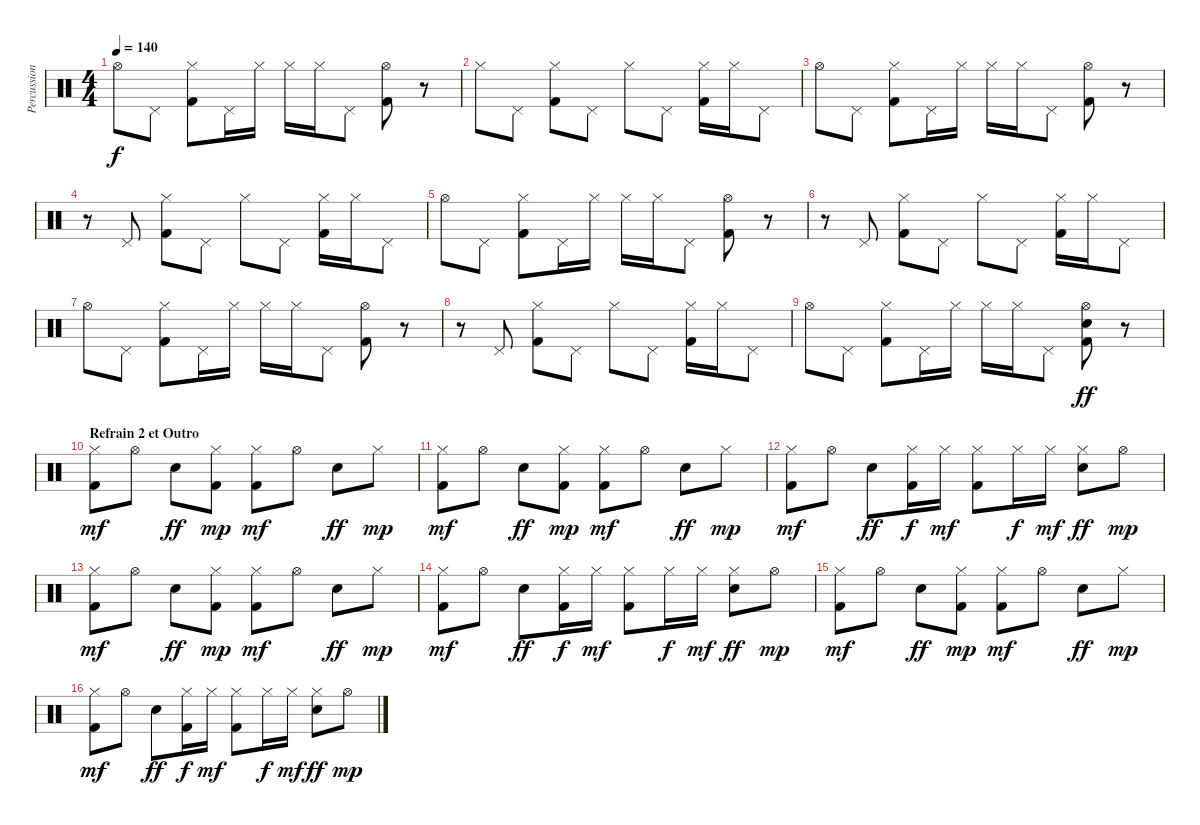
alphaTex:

\track ("Percussions" "Percussion") {instrument percussion}
\staff {score}
\articulation defaults
\ts (4 4)
\tempo 140
\clef neutral
\ks c "Hi-Hat (open)".8{dy f} "Pedal Hi-Hat (hit)".8
("Hi-Hat (closed)" "Kick (hit) 2").8 "Pedal Hi-Hat (hit)".16 "Hi-Hat (closed)".16 "Hi-Hat (closed)".16 "Hi-Hat (closed)".16 "Pedal Hi-Hat (hit)".8 ("Hi-Hat (open)" "Kick (hit) 2").8 r.8 |
"Hi-Hat (closed)".8 "Pedal Hi-Hat (hit)".8 ("Hi-Hat (closed)" "Kick (hit) 2").8 "Pedal Hi-Hat (hit)".8 "Hi-Hat (closed)".8 "Pedal Hi-Hat (hit)".8 ("Hi-Hat (closed)" "Kick (hit) 2").16 "Hi-Hat (closed)".16 "Pedal Hi-Hat (hit)".8 |
"Hi-Hat (open)".8 "Pedal Hi-Hat (hit)".8 ("Hi-Hat (closed)" "Kick (hit) 2").8 "Pedal Hi-Hat (hit)".16 "Hi-Hat (closed)".16 "Hi-Hat (closed)".16 "Hi-Hat (closed)".16 "Pedal Hi-Hat (hit)".8 ("Hi-Hat (open)" "Kick (hit) 2").8 r.8 |
r.8 "Pedal Hi-Hat (hit)".8 ("Hi-Hat (closed)" "Kick (hit) 2").8 "Pedal Hi-Hat (hit)".8 "Hi-Hat (closed)".8 "Pedal Hi-Hat (hit)".8 ("Hi-Hat (closed)" "Kick (hit) 2").16 "Hi-Hat (closed)".16 "Pedal Hi-Hat (hit)".8 |
"Hi-Hat (open)".8 "Pedal Hi-Hat (hit)".8 ("Hi-Hat (closed)" "Kick (hit) 2").8 "Pedal Hi-Hat (hit)".16 "Hi-Hat (closed)".16 "Hi-Hat (closed)".16 "Hi-Hat (closed)".16 "Pedal Hi-Hat (hit)".8 ("Hi-Hat (open)" "Kick (hit) 2").8 r.8 |
r.8 "Pedal Hi-Hat (hit)".8 ("Hi-Hat (closed)" "Kick (hit) 2").8 "Pedal Hi-Hat (hit)".8 "Hi-Hat (closed)".8 "Pedal Hi-Hat (hit)".8 ("Hi-Hat (closed)" "Kick (hit) 2").16 "Hi-Hat (closed)".16 "Pedal Hi-Hat (hit)".8 |
"Hi-Hat (open)".8 "Pedal Hi-Hat (hit)".8 ("Hi-Hat (closed)" "Kick (hit) 2").8 "Pedal Hi-Hat (hit)".16 "Hi-Hat (closed)".16 "Hi-Hat (closed)".16 "Hi-Hat (closed)".16 "Pedal Hi-Hat (hit)".8 ("Hi-Hat (open)" "Kick (hit) 2").8 r.8 |
r.8 "Pedal Hi-Hat (hit)".8 ("Hi-Hat (closed)" "Kick (hit) 2").8 "Pedal Hi-Hat (hit)".8 "Hi-Hat (closed)".8 "Pedal Hi-Hat (hit)".8 ("Hi-Hat (closed)" "Kick (hit) 2").16 "Hi-Hat (closed)".16 "Pedal Hi-Hat (hit)".8 |
"Hi-Hat (open)".8 "Pedal Hi-Hat (hit)".8 ("Hi-Hat (closed)" "Kick (hit) 2").8 "Pedal Hi-Hat (hit)".16 "Hi-Hat (closed)".16 "Hi-Hat (closed)".16 "Hi-Hat (closed)".16 "Pedal Hi-Hat (hit)".8 ("Hi-Hat (open)" "Electric Snare (hit)" "Kick (hit) 2").8{dy ff} r.8 |
\section ("" "Refrain 2 et Outro")
("Hi-Hat (closed)" "Kick (hit) 2").8{dy mf} "Hi-Hat (open)".8 "Electric Snare (hit)".8{dy ff} ("Hi-Hat (closed)" "Kick (hit) 2").8{dy mp} ("Hi-Hat (closed)" "Kick (hit) 2").8{dy mf} "Hi-Hat (open)".8 "Electric Snare (hit)".8{dy ff} "Hi-Hat (closed)".8{dy mp} |
("Hi-Hat (closed)" "Kick (hit) 2").8{dy mf} "Hi-Hat (open)".8 "Electric Snare (hit)".8{dy ff} ("Hi-Hat (closed)" "Kick (hit) 2").8{dy mp} ("Hi-Hat (closed)" "Kick (hit) 2").8{dy mf} "Hi-Hat (open)".8 "Electric Snare (hit)".8{dy ff} "Hi-Hat (closed)".8{dy mp} |
("Hi-Hat (closed)" "Kick (hit) 2").8{dy mf} "Hi-Hat (open)".8 "Electric Snare (hit)".8{dy ff} ("Hi-Hat (closed)" "Kick (hit) 2").16{dy f} "Hi-Hat (closed)".16{dy mf} ("Hi-Hat (closed)" "Kick (hit) 2").8 "Hi-Hat (closed)".16{dy f} "Hi-Hat (closed)".16{dy mf} ("Hi-Hat (closed)" "Electric Snare (hit)").8{dy ff} "Hi-Hat (open)".8{dy mp} |
("Hi-Hat (closed)" "Kick (hit) 2").8{dy mf} "Hi-Hat (open)".8 "Electric Snare (hit)".8{dy ff} ("Hi-Hat (closed)" "Kick (hit) 2").8{dy mp} ("Hi-Hat (closed)" "Kick (hit) 2").8{dy mf} "Hi-Hat (open)".8 "Electric Snare (hit)".8{dy ff} "Hi-Hat (closed)".8{dy mp} |
("Hi-Hat (closed)" "Kick (hit) 2").8{dy mf} "Hi-Hat (open)".8 "Electric Snare (hit)".8{dy ff} ("Hi-Hat (closed)" "Kick (hit) 2").16{dy f} "Hi-Hat (closed)".16{dy mf} ("Hi-Hat (closed)" "Kick (hit) 2").8 "Hi-Hat (closed)".16{dy f} "Hi-Hat (closed)".16{dy mf} ("Hi-Hat (closed)" "Electric Snare (hit)").8{dy ff} "Hi-Hat (open)".8{dy mp} |
("Hi-Hat (closed)" "Kick (hit) 2").8{dy mf} "Hi-Hat (open)".8 "Electric Snare (hit)".8{dy ff} ("Hi-Hat (closed)" "Kick (hit) 2").8{dy mp} ("Hi-Hat (closed)" "Kick (hit) 2").8{dy mf} "Hi-Hat (open)".8 "Electric Snare (hit)".8{dy ff} "Hi-Hat (closed)".8{dy mp} |
("Hi-Hat (closed)" "Kick (hit) 2").8{dy mf} "Hi-Hat (open)".8 "Electric Snare (hit)".8{dy ff} ("Hi-Hat (closed)" "Kick (hit) 2").16{dy f} "Hi-Hat (closed)".16{dy mf} ("Hi-Hat (closed)" "Kick (hit) 2").8 "Hi-Hat (closed)".16{dy f} "Hi-Hat (closed)".16{dy mf} ("Hi-Hat (closed)" "Electric Snare (hit)").8{dy ff} "Hi-Hat (open)".8{dy mp}
